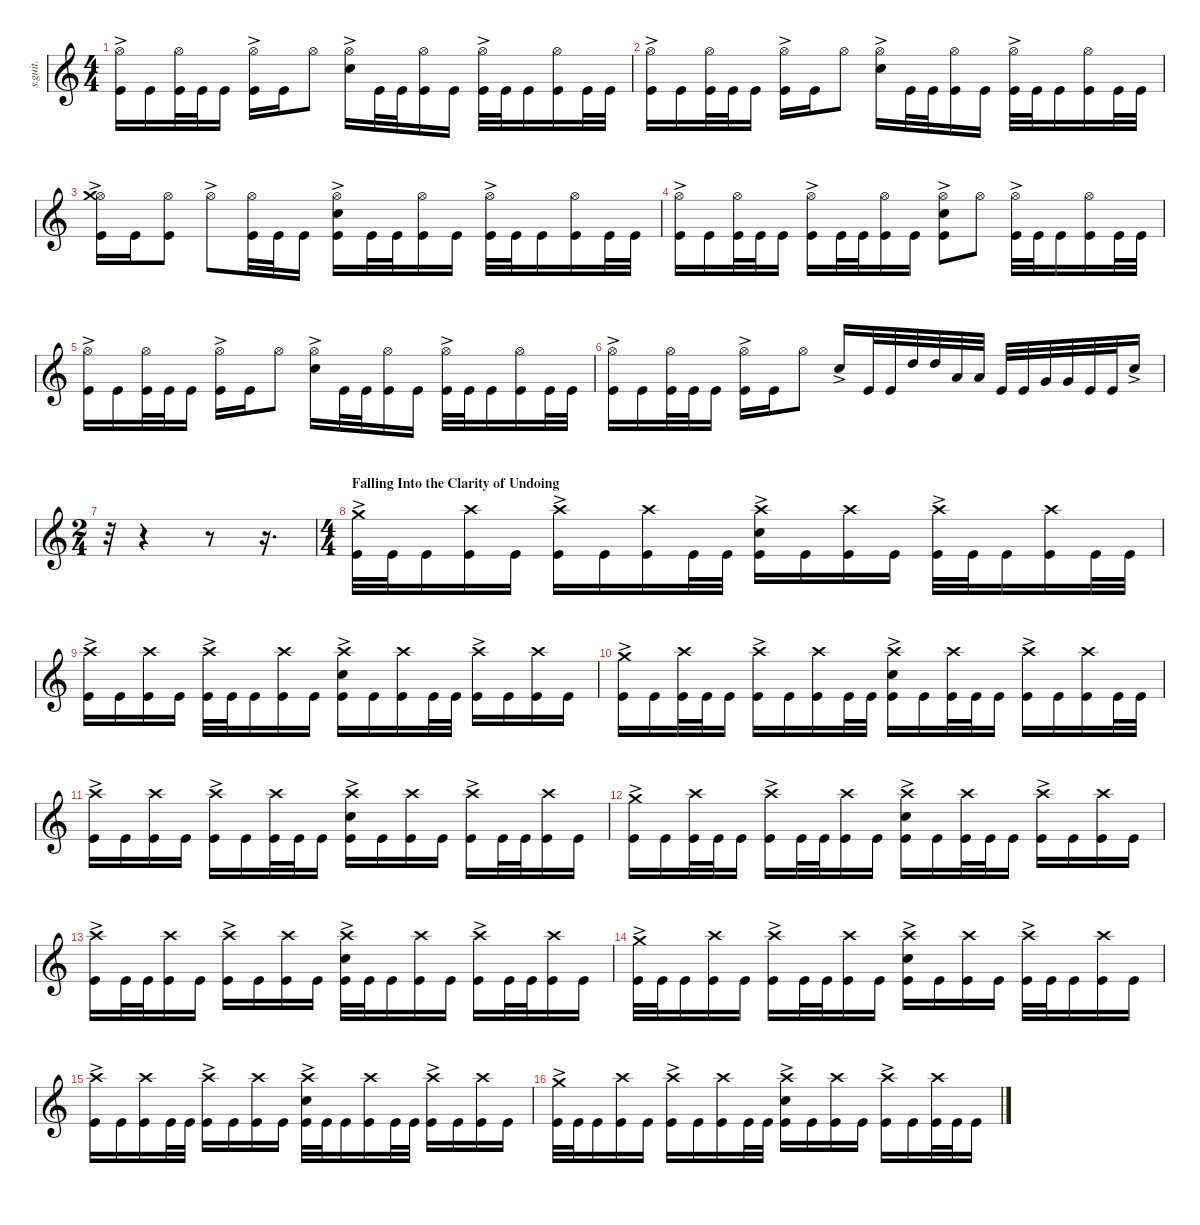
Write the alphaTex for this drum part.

\defaultSystemsLayout 4
\hideDynamics
\bracketExtendMode nobrackets
\track ("Tomas Haake (Drums)" "s.guit.") {instrument percussion}
\staff {score}
\articulation defaults
\ts (4 4)
\tempo (115 hide)
\clef g2
\ks c
("Hi-Hat (open)"{ac} "Kick (hit)").16{lyrics (0 "") lyrics (1 "") lyrics (2 "") lyrics (3 "") lyrics (4 "") dy f} "Kick (hit)".16{lyrics (0 "") lyrics (1 "") lyrics (2 "") lyrics (3 "") lyrics (4 "")} ("Hi-Hat (open)" "Kick (hit)").32{lyrics (0 "") lyrics (1 "") lyrics (2 "") lyrics (3 "") lyrics (4 "") dy p} "Kick (hit)".32{lyrics (0 "") lyrics (1 "") lyrics (2 "") lyrics (3 "") lyrics (4 "") dy mf} "Kick (hit)".16{lyrics (0 "") lyrics (1 "") lyrics (2 "") lyrics (3 "") lyrics (4 "") dy f} ("Hi-Hat (open)"{ac} "Kick (hit)").16{lyrics (0 "") lyrics (1 "") lyrics (2 "") lyrics (3 "") lyrics (4 "")} "Kick (hit)".16{lyrics (0 "") lyrics (1 "") lyrics (2 "") lyrics (3 "") lyrics (4 "")} "Hi-Hat (open)".8{lyrics (0 "") lyrics (1 "") lyrics (2 "") lyrics (3 "") lyrics (4 "") dy p} ("Hi-Hat (open)"{ac} "Snare (hit) 2").16{lyrics (0 "") lyrics (1 "") lyrics (2 "") lyrics (3 "") lyrics (4 "") dy f} "Kick (hit)".32{lyrics (0 "") lyrics (1 "") lyrics (2 "") lyrics (3 "") lyrics (4 "")} "Kick (hit)".32{lyrics (0 "") lyrics (1 "") lyrics (2 "") lyrics (3 "") lyrics (4 "") dy mf} ("Hi-Hat (open)" "Kick (hit)").16{lyrics (0 "") lyrics (1 "") lyrics (2 "") lyrics (3 "") lyrics (4 "") dy p} "Kick (hit)".16{lyrics (0 "") lyrics (1 "") lyrics (2 "") lyrics (3 "") lyrics (4 "") dy f} ("Hi-Hat (open)"{ac} "Kick (hit)").32{lyrics (0 "") lyrics (1 "") lyrics (2 "") lyrics (3 "") lyrics (4 "")} "Kick (hit)".32{lyrics (0 "") lyrics (1 "") lyrics (2 "") lyrics (3 "") lyrics (4 "") dy mf} "Kick (hit)".16{lyrics (0 "") lyrics (1 "") lyrics (2 "") lyrics (3 "") lyrics (4 "") dy f} ("Hi-Hat (open)" "Kick (hit)").16{lyrics (0 "") lyrics (1 "") lyrics (2 "") lyrics (3 "") lyrics (4 "") dy p} "Kick (hit)".32{lyrics (0 "") lyrics (1 "") lyrics (2 "") lyrics (3 "") lyrics (4 "") dy f} "Kick (hit)".32{lyrics (0 "") lyrics (1 "") lyrics (2 "") lyrics (3 "") lyrics (4 "") dy mf} |
("Hi-Hat (open)"{ac} "Kick (hit)").16{lyrics (0 "") lyrics (1 "") lyrics (2 "") lyrics (3 "") lyrics (4 "") dy f} "Kick (hit)".16{lyrics (0 "") lyrics (1 "") lyrics (2 "") lyrics (3 "") lyrics (4 "")} ("Hi-Hat (open)" "Kick (hit)").32{lyrics (0 "") lyrics (1 "") lyrics (2 "") lyrics (3 "") lyrics (4 "") dy p} "Kick (hit)".32{lyrics (0 "") lyrics (1 "") lyrics (2 "") lyrics (3 "") lyrics (4 "") dy mf} "Kick (hit)".16{lyrics (0 "") lyrics (1 "") lyrics (2 "") lyrics (3 "") lyrics (4 "") dy f} ("Hi-Hat (open)"{ac} "Kick (hit)").16{lyrics (0 "") lyrics (1 "") lyrics (2 "") lyrics (3 "") lyrics (4 "")} "Kick (hit)".16{lyrics (0 "") lyrics (1 "") lyrics (2 "") lyrics (3 "") lyrics (4 "")} "Hi-Hat (open)".8{lyrics (0 "") lyrics (1 "") lyrics (2 "") lyrics (3 "") lyrics (4 "") dy p} ("Hi-Hat (open)"{ac} "Snare (hit) 2").16{lyrics (0 "") lyrics (1 "") lyrics (2 "") lyrics (3 "") lyrics (4 "") dy f} "Kick (hit)".32{lyrics (0 "") lyrics (1 "") lyrics (2 "") lyrics (3 "") lyrics (4 "")} "Kick (hit)".32{lyrics (0 "") lyrics (1 "") lyrics (2 "") lyrics (3 "") lyrics (4 "") dy mf} ("Hi-Hat (open)" "Kick (hit)").16{lyrics (0 "") lyrics (1 "") lyrics (2 "") lyrics (3 "") lyrics (4 "") dy p} "Kick (hit)".16{lyrics (0 "") lyrics (1 "") lyrics (2 "") lyrics (3 "") lyrics (4 "") dy f} ("Hi-Hat (open)"{ac} "Kick (hit)").32{lyrics (0 "") lyrics (1 "") lyrics (2 "") lyrics (3 "") lyrics (4 "")} "Kick (hit)".32{lyrics (0 "") lyrics (1 "") lyrics (2 "") lyrics (3 "") lyrics (4 "") dy mf} "Kick (hit)".16{lyrics (0 "") lyrics (1 "") lyrics (2 "") lyrics (3 "") lyrics (4 "") dy f} ("Hi-Hat (open)" "Kick (hit)").16{lyrics (0 "") lyrics (1 "") lyrics (2 "") lyrics (3 "") lyrics (4 "") dy p} "Kick (hit)".32{lyrics (0 "") lyrics (1 "") lyrics (2 "") lyrics (3 "") lyrics (4 "") dy f} "Kick (hit)".32{lyrics (0 "") lyrics (1 "") lyrics (2 "") lyrics (3 "") lyrics (4 "") dy mf} |
("Hi-Hat (open)"{ac} "Crash medium (hit)" "Kick (hit)").16{lyrics (0 "") lyrics (1 "") lyrics (2 "") lyrics (3 "") lyrics (4 "")} "Kick (hit)".16{lyrics (0 "") lyrics (1 "") lyrics (2 "") lyrics (3 "") lyrics (4 "") dy f} ("Hi-Hat (open)" "Kick (hit)").8{lyrics (0 "") lyrics (1 "") lyrics (2 "") lyrics (3 "") lyrics (4 "") dy p} "Hi-Hat (open)"{ac}.8{lyrics (0 "") lyrics (1 "") lyrics (2 "") lyrics (3 "") lyrics (4 "") dy ppp} ("Hi-Hat (open)" "Kick (hit)").32{lyrics (0 "") lyrics (1 "") lyrics (2 "") lyrics (3 "") lyrics (4 "") dy p} "Kick (hit)".32{lyrics (0 "") lyrics (1 "") lyrics (2 "") lyrics (3 "") lyrics (4 "") dy mf} "Kick (hit)".16{lyrics (0 "") lyrics (1 "") lyrics (2 "") lyrics (3 "") lyrics (4 "") dy f} ("Hi-Hat (open)"{ac} "Snare (hit) 2" "Kick (hit)").16{lyrics (0 "") lyrics (1 "") lyrics (2 "") lyrics (3 "") lyrics (4 "")} "Kick (hit)".32{lyrics (0 "") lyrics (1 "") lyrics (2 "") lyrics (3 "") lyrics (4 "")} "Kick (hit)".32{lyrics (0 "") lyrics (1 "") lyrics (2 "") lyrics (3 "") lyrics (4 "") dy mf} ("Hi-Hat (open)" "Kick (hit)").16{lyrics (0 "") lyrics (1 "") lyrics (2 "") lyrics (3 "") lyrics (4 "") dy p} "Kick (hit)".16{lyrics (0 "") lyrics (1 "") lyrics (2 "") lyrics (3 "") lyrics (4 "") dy f} ("Hi-Hat (open)"{ac} "Kick (hit)").32{lyrics (0 "") lyrics (1 "") lyrics (2 "") lyrics (3 "") lyrics (4 "")} "Kick (hit)".32{lyrics (0 "") lyrics (1 "") lyrics (2 "") lyrics (3 "") lyrics (4 "") dy mf} "Kick (hit)".16{lyrics (0 "") lyrics (1 "") lyrics (2 "") lyrics (3 "") lyrics (4 "") dy f} ("Hi-Hat (open)" "Kick (hit)").16{lyrics (0 "") lyrics (1 "") lyrics (2 "") lyrics (3 "") lyrics (4 "") dy p} "Kick (hit)".32{lyrics (0 "") lyrics (1 "") lyrics (2 "") lyrics (3 "") lyrics (4 "") dy f} "Kick (hit)".32{lyrics (0 "") lyrics (1 "") lyrics (2 "") lyrics (3 "") lyrics (4 "") dy mf} |
("Hi-Hat (open)"{ac} "Kick (hit)").16{lyrics (0 "") lyrics (1 "") lyrics (2 "") lyrics (3 "") lyrics (4 "") dy f} "Kick (hit)".16{lyrics (0 "") lyrics (1 "") lyrics (2 "") lyrics (3 "") lyrics (4 "")} ("Hi-Hat (open)" "Kick (hit)").32{lyrics (0 "") lyrics (1 "") lyrics (2 "") lyrics (3 "") lyrics (4 "") dy p} "Kick (hit)".32{lyrics (0 "") lyrics (1 "") lyrics (2 "") lyrics (3 "") lyrics (4 "") dy mf} "Kick (hit)".16{lyrics (0 "") lyrics (1 "") lyrics (2 "") lyrics (3 "") lyrics (4 "") dy f} ("Hi-Hat (open)"{ac} "Kick (hit)").16{lyrics (0 "") lyrics (1 "") lyrics (2 "") lyrics (3 "") lyrics (4 "")} "Kick (hit)".32{lyrics (0 "") lyrics (1 "") lyrics (2 "") lyrics (3 "") lyrics (4 "")} "Kick (hit)".32{lyrics (0 "") lyrics (1 "") lyrics (2 "") lyrics (3 "") lyrics (4 "") dy mf} ("Hi-Hat (open)" "Kick (hit)").16{lyrics (0 "") lyrics (1 "") lyrics (2 "") lyrics (3 "") lyrics (4 "") dy p} "Kick (hit)".16{lyrics (0 "") lyrics (1 "") lyrics (2 "") lyrics (3 "") lyrics (4 "") dy f} ("Hi-Hat (open)"{ac} "Snare (hit) 2" "Kick (hit)").8{lyrics (0 "") lyrics (1 "") lyrics (2 "") lyrics (3 "") lyrics (4 "")} "Hi-Hat (open)".8{lyrics (0 "") lyrics (1 "") lyrics (2 "") lyrics (3 "") lyrics (4 "") dy p} ("Hi-Hat (open)"{ac} "Kick (hit)").32{lyrics (0 "") lyrics (1 "") lyrics (2 "") lyrics (3 "") lyrics (4 "") dy f} "Kick (hit)".32{lyrics (0 "") lyrics (1 "") lyrics (2 "") lyrics (3 "") lyrics (4 "") dy mf} "Kick (hit)".16{lyrics (0 "") lyrics (1 "") lyrics (2 "") lyrics (3 "") lyrics (4 "") dy f} ("Hi-Hat (open)" "Kick (hit)").16{lyrics (0 "") lyrics (1 "") lyrics (2 "") lyrics (3 "") lyrics (4 "") dy p} "Kick (hit)".32{lyrics (0 "") lyrics (1 "") lyrics (2 "") lyrics (3 "") lyrics (4 "") dy mf} "Kick (hit)".32{lyrics (0 "") lyrics (1 "") lyrics (2 "") lyrics (3 "") lyrics (4 "")} |
("Hi-Hat (open)"{ac} "Kick (hit)").16{lyrics (0 "") lyrics (1 "") lyrics (2 "") lyrics (3 "") lyrics (4 "") dy f} "Kick (hit)".16{lyrics (0 "") lyrics (1 "") lyrics (2 "") lyrics (3 "") lyrics (4 "")} ("Hi-Hat (open)" "Kick (hit)").32{lyrics (0 "") lyrics (1 "") lyrics (2 "") lyrics (3 "") lyrics (4 "") dy p} "Kick (hit)".32{lyrics (0 "") lyrics (1 "") lyrics (2 "") lyrics (3 "") lyrics (4 "") dy mf} "Kick (hit)".16{lyrics (0 "") lyrics (1 "") lyrics (2 "") lyrics (3 "") lyrics (4 "") dy f} ("Hi-Hat (open)"{ac} "Kick (hit)").16{lyrics (0 "") lyrics (1 "") lyrics (2 "") lyrics (3 "") lyrics (4 "")} "Kick (hit)".16{lyrics (0 "") lyrics (1 "") lyrics (2 "") lyrics (3 "") lyrics (4 "")} "Hi-Hat (open)".8{lyrics (0 "") lyrics (1 "") lyrics (2 "") lyrics (3 "") lyrics (4 "") dy p} ("Hi-Hat (open)"{ac} "Snare (hit) 2").16{lyrics (0 "") lyrics (1 "") lyrics (2 "") lyrics (3 "") lyrics (4 "") dy f} "Kick (hit)".32{lyrics (0 "") lyrics (1 "") lyrics (2 "") lyrics (3 "") lyrics (4 "")} "Kick (hit)".32{lyrics (0 "") lyrics (1 "") lyrics (2 "") lyrics (3 "") lyrics (4 "") dy mf} ("Hi-Hat (open)" "Kick (hit)").16{lyrics (0 "") lyrics (1 "") lyrics (2 "") lyrics (3 "") lyrics (4 "") dy p} "Kick (hit)".16{lyrics (0 "") lyrics (1 "") lyrics (2 "") lyrics (3 "") lyrics (4 "") dy f} ("Hi-Hat (open)"{ac} "Kick (hit)").32{lyrics (0 "") lyrics (1 "") lyrics (2 "") lyrics (3 "") lyrics (4 "")} "Kick (hit)".32{lyrics (0 "") lyrics (1 "") lyrics (2 "") lyrics (3 "") lyrics (4 "") dy mf} "Kick (hit)".16{lyrics (0 "") lyrics (1 "") lyrics (2 "") lyrics (3 "") lyrics (4 "") dy f} ("Hi-Hat (open)" "Kick (hit)").16{lyrics (0 "") lyrics (1 "") lyrics (2 "") lyrics (3 "") lyrics (4 "") dy p} "Kick (hit)".32{lyrics (0 "") lyrics (1 "") lyrics (2 "") lyrics (3 "") lyrics (4 "") dy f} "Kick (hit)".32{lyrics (0 "") lyrics (1 "") lyrics (2 "") lyrics (3 "") lyrics (4 "") dy mf} |
("Hi-Hat (open)"{ac} "Kick (hit)").16{lyrics (0 "") lyrics (1 "") lyrics (2 "") lyrics (3 "") lyrics (4 "") dy f} "Kick (hit)".16{lyrics (0 "") lyrics (1 "") lyrics (2 "") lyrics (3 "") lyrics (4 "")} ("Hi-Hat (open)" "Kick (hit)").32{lyrics (0 "") lyrics (1 "") lyrics (2 "") lyrics (3 "") lyrics (4 "") dy p} "Kick (hit)".32{lyrics (0 "") lyrics (1 "") lyrics (2 "") lyrics (3 "") lyrics (4 "") dy mf} "Kick (hit)".16{lyrics (0 "") lyrics (1 "") lyrics (2 "") lyrics (3 "") lyrics (4 "") dy f} ("Hi-Hat (open)"{ac} "Kick (hit)").16{lyrics (0 "") lyrics (1 "") lyrics (2 "") lyrics (3 "") lyrics (4 "")} "Kick (hit)".16{lyrics (0 "") lyrics (1 "") lyrics (2 "") lyrics (3 "") lyrics (4 "")} "Hi-Hat (open)".8{lyrics (0 "") lyrics (1 "") lyrics (2 "") lyrics (3 "") lyrics (4 "") dy p} "Snare (hit) 2"{ac}.16{lyrics (0 "") lyrics (1 "") lyrics (2 "") lyrics (3 "") lyrics (4 "") dy pp} "Kick (hit)".32{lyrics (0 "") lyrics (1 "") lyrics (2 "") lyrics (3 "") lyrics (4 "") dy mf} "Kick (hit)".32{lyrics (0 "") lyrics (1 "") lyrics (2 "") lyrics (3 "") lyrics (4 "") dy f} "High Tom (hit)".32{lyrics (0 "") lyrics (1 "") lyrics (2 "") lyrics (3 "") lyrics (4 "") dy mf} "High Tom (hit)".32{lyrics (0 "") lyrics (1 "") lyrics (2 "") lyrics (3 "") lyrics (4 "")} "Low Tom (hit)".32{lyrics (0 "") lyrics (1 "") lyrics (2 "") lyrics (3 "") lyrics (4 "")} "Low Tom (hit)".32{lyrics (0 "") lyrics (1 "") lyrics (2 "") lyrics (3 "") lyrics (4 "") dy mp} "Kick (hit)".32{lyrics (0 "") lyrics (1 "") lyrics (2 "") lyrics (3 "") lyrics (4 "") dy mf} "Kick (hit)".32{lyrics (0 "") lyrics (1 "") lyrics (2 "") lyrics (3 "") lyrics (4 "") dy f} "Very Low Tom (hit)".32{lyrics (0 "") lyrics (1 "") lyrics (2 "") lyrics (3 "") lyrics (4 "") dy mf} "Very Low Tom (hit)".32{lyrics (0 "") lyrics (1 "") lyrics (2 "") lyrics (3 "") lyrics (4 "") dy mp} "Kick (hit)".32{lyrics (0 "") lyrics (1 "") lyrics (2 "") lyrics (3 "") lyrics (4 "") dy mf} "Kick (hit)".32{lyrics (0 "") lyrics (1 "") lyrics (2 "") lyrics (3 "") lyrics (4 "") dy f} "Snare (hit) 2"{ac}.16{lyrics (0 "") lyrics (1 "") lyrics (2 "") lyrics (3 "") lyrics (4 "") dy pp} |
\ts (2 4)
\beaming (8 2 2 2 2)
r.32 r.4 r.8 r.16{d} |
\ts (4 4)
\beaming (8 2 2 2 2)
\section ("" "Falling Into the Clarity of Undoing")
("Crash medium (hit)"{ac} "Kick (hit)").32{lyrics (0 "") lyrics (1 "") lyrics (2 "") lyrics (3 "") lyrics (4 "") dy f} "Kick (hit)".32{lyrics (0 "") lyrics (1 "") lyrics (2 "") lyrics (3 "") lyrics (4 "") dy mf} "Kick (hit)".16{lyrics (0 "") lyrics (1 "") lyrics (2 "") lyrics (3 "") lyrics (4 "") dy f} ("Crash high (hit)" "Kick (hit)").16{lyrics (0 "") lyrics (1 "") lyrics (2 "") lyrics (3 "") lyrics (4 "") dy p} "Kick (hit)".16{lyrics (0 "") lyrics (1 "") lyrics (2 "") lyrics (3 "") lyrics (4 "") dy f} ("Crash high (hit)"{ac} "Kick (hit)").16{lyrics (0 "") lyrics (1 "") lyrics (2 "") lyrics (3 "") lyrics (4 "")} "Kick (hit)".16{lyrics (0 "") lyrics (1 "") lyrics (2 "") lyrics (3 "") lyrics (4 "")} ("Crash high (hit)" "Kick (hit)").16{lyrics (0 "") lyrics (1 "") lyrics (2 "") lyrics (3 "") lyrics (4 "") dy p} "Kick (hit)".32{lyrics (0 "") lyrics (1 "") lyrics (2 "") lyrics (3 "") lyrics (4 "") dy f} "Kick (hit)".32{lyrics (0 "") lyrics (1 "") lyrics (2 "") lyrics (3 "") lyrics (4 "") dy mf} ("Crash high (hit)"{ac} "Snare (hit) 2" "Kick (hit)").16{lyrics (0 "") lyrics (1 "") lyrics (2 "") lyrics (3 "") lyrics (4 "") dy f} "Kick (hit)".16{lyrics (0 "") lyrics (1 "") lyrics (2 "") lyrics (3 "") lyrics (4 "")} ("Crash high (hit)" "Kick (hit)").16{lyrics (0 "") lyrics (1 "") lyrics (2 "") lyrics (3 "") lyrics (4 "") dy p} "Kick (hit)".16{lyrics (0 "") lyrics (1 "") lyrics (2 "") lyrics (3 "") lyrics (4 "") dy f} ("Crash high (hit)"{ac} "Kick (hit)").32{lyrics (0 "") lyrics (1 "") lyrics (2 "") lyrics (3 "") lyrics (4 "")} "Kick (hit)".32{lyrics (0 "") lyrics (1 "") lyrics (2 "") lyrics (3 "") lyrics (4 "") dy mf} "Kick (hit)".16{lyrics (0 "") lyrics (1 "") lyrics (2 "") lyrics (3 "") lyrics (4 "") dy f} ("Crash high (hit)" "Kick (hit)").16{lyrics (0 "") lyrics (1 "") lyrics (2 "") lyrics (3 "") lyrics (4 "") dy p} "Kick (hit)".32{lyrics (0 "") lyrics (1 "") lyrics (2 "") lyrics (3 "") lyrics (4 "") dy f} "Kick (hit)".32{lyrics (0 "") lyrics (1 "") lyrics (2 "") lyrics (3 "") lyrics (4 "") dy mf} |
("Crash high (hit)"{ac} "Kick (hit)").16{lyrics (0 "") lyrics (1 "") lyrics (2 "") lyrics (3 "") lyrics (4 "") dy f} "Kick (hit)".16{lyrics (0 "") lyrics (1 "") lyrics (2 "") lyrics (3 "") lyrics (4 "")} ("Crash high (hit)" "Kick (hit)").16{lyrics (0 "") lyrics (1 "") lyrics (2 "") lyrics (3 "") lyrics (4 "") dy p} "Kick (hit)".16{lyrics (0 "") lyrics (1 "") lyrics (2 "") lyrics (3 "") lyrics (4 "") dy f} ("Crash high (hit)"{ac} "Kick (hit)").32{lyrics (0 "") lyrics (1 "") lyrics (2 "") lyrics (3 "") lyrics (4 "")} "Kick (hit)".32{lyrics (0 "") lyrics (1 "") lyrics (2 "") lyrics (3 "") lyrics (4 "") dy mf} "Kick (hit)".16{lyrics (0 "") lyrics (1 "") lyrics (2 "") lyrics (3 "") lyrics (4 "") dy f} ("Crash high (hit)" "Kick (hit)").16{lyrics (0 "") lyrics (1 "") lyrics (2 "") lyrics (3 "") lyrics (4 "") dy p} "Kick (hit)".16{lyrics (0 "") lyrics (1 "") lyrics (2 "") lyrics (3 "") lyrics (4 "") dy f} ("Crash high (hit)"{ac} "Snare (hit) 2" "Kick (hit)").16{lyrics (0 "") lyrics (1 "") lyrics (2 "") lyrics (3 "") lyrics (4 "")} "Kick (hit)".16{lyrics (0 "") lyrics (1 "") lyrics (2 "") lyrics (3 "") lyrics (4 "")} ("Crash high (hit)" "Kick (hit)").16{lyrics (0 "") lyrics (1 "") lyrics (2 "") lyrics (3 "") lyrics (4 "") dy p} "Kick (hit)".32{lyrics (0 "") lyrics (1 "") lyrics (2 "") lyrics (3 "") lyrics (4 "") dy f} "Kick (hit)".32{lyrics (0 "") lyrics (1 "") lyrics (2 "") lyrics (3 "") lyrics (4 "") dy mf} ("Crash high (hit)"{ac} "Kick (hit)").16{lyrics (0 "") lyrics (1 "") lyrics (2 "") lyrics (3 "") lyrics (4 "") dy f} "Kick (hit)".16{lyrics (0 "") lyrics (1 "") lyrics (2 "") lyrics (3 "") lyrics (4 "")} ("Crash high (hit)" "Kick (hit)").16{lyrics (0 "") lyrics (1 "") lyrics (2 "") lyrics (3 "") lyrics (4 "") dy p} "Kick (hit)".16{lyrics (0 "") lyrics (1 "") lyrics (2 "") lyrics (3 "") lyrics (4 "") dy f} |
("Crash medium (hit)"{ac} "Kick (hit)").16{lyrics (0 "") lyrics (1 "") lyrics (2 "") lyrics (3 "") lyrics (4 "")} "Kick (hit)".16{lyrics (0 "") lyrics (1 "") lyrics (2 "") lyrics (3 "") lyrics (4 "")} ("Crash high (hit)" "Kick (hit)").32{lyrics (0 "") lyrics (1 "") lyrics (2 "") lyrics (3 "") lyrics (4 "") dy p} "Kick (hit)".32{lyrics (0 "") lyrics (1 "") lyrics (2 "") lyrics (3 "") lyrics (4 "") dy mf} "Kick (hit)".16{lyrics (0 "") lyrics (1 "") lyrics (2 "") lyrics (3 "") lyrics (4 "") dy f} ("Crash high (hit)"{ac} "Kick (hit)").16{lyrics (0 "") lyrics (1 "") lyrics (2 "") lyrics (3 "") lyrics (4 "")} "Kick (hit)".16{lyrics (0 "") lyrics (1 "") lyrics (2 "") lyrics (3 "") lyrics (4 "")} ("Crash high (hit)" "Kick (hit)").16{lyrics (0 "") lyrics (1 "") lyrics (2 "") lyrics (3 "") lyrics (4 "") dy p} "Kick (hit)".32{lyrics (0 "") lyrics (1 "") lyrics (2 "") lyrics (3 "") lyrics (4 "") dy f} "Kick (hit)".32{lyrics (0 "") lyrics (1 "") lyrics (2 "") lyrics (3 "") lyrics (4 "") dy mf} ("Crash high (hit)"{ac} "Snare (hit) 2" "Kick (hit)").16{lyrics (0 "") lyrics (1 "") lyrics (2 "") lyrics (3 "") lyrics (4 "") dy f} "Kick (hit)".16{lyrics (0 "") lyrics (1 "") lyrics (2 "") lyrics (3 "") lyrics (4 "")} ("Crash high (hit)" "Kick (hit)").32{lyrics (0 "") lyrics (1 "") lyrics (2 "") lyrics (3 "") lyrics (4 "") dy p} "Kick (hit)".32{lyrics (0 "") lyrics (1 "") lyrics (2 "") lyrics (3 "") lyrics (4 "") dy mf} "Kick (hit)".16{lyrics (0 "") lyrics (1 "") lyrics (2 "") lyrics (3 "") lyrics (4 "") dy f} ("Crash high (hit)"{ac} "Kick (hit)").16{lyrics (0 "") lyrics (1 "") lyrics (2 "") lyrics (3 "") lyrics (4 "")} "Kick (hit)".16{lyrics (0 "") lyrics (1 "") lyrics (2 "") lyrics (3 "") lyrics (4 "")} ("Crash high (hit)" "Kick (hit)").16{lyrics (0 "") lyrics (1 "") lyrics (2 "") lyrics (3 "") lyrics (4 "") dy p} "Kick (hit)".32{lyrics (0 "") lyrics (1 "") lyrics (2 "") lyrics (3 "") lyrics (4 "") dy f} "Kick (hit)".32{lyrics (0 "") lyrics (1 "") lyrics (2 "") lyrics (3 "") lyrics (4 "") dy mf} |
("Crash high (hit)"{ac} "Kick (hit)").16{lyrics (0 "") lyrics (1 "") lyrics (2 "") lyrics (3 "") lyrics (4 "") dy f} "Kick (hit)".16{lyrics (0 "") lyrics (1 "") lyrics (2 "") lyrics (3 "") lyrics (4 "")} ("Crash high (hit)" "Kick (hit)").16{lyrics (0 "") lyrics (1 "") lyrics (2 "") lyrics (3 "") lyrics (4 "") dy p} "Kick (hit)".16{lyrics (0 "") lyrics (1 "") lyrics (2 "") lyrics (3 "") lyrics (4 "") dy f} ("Crash high (hit)"{ac} "Kick (hit)").16{lyrics (0 "") lyrics (1 "") lyrics (2 "") lyrics (3 "") lyrics (4 "")} "Kick (hit)".16{lyrics (0 "") lyrics (1 "") lyrics (2 "") lyrics (3 "") lyrics (4 "")} ("Crash high (hit)" "Kick (hit)").32{lyrics (0 "") lyrics (1 "") lyrics (2 "") lyrics (3 "") lyrics (4 "") dy p} "Kick (hit)".32{lyrics (0 "") lyrics (1 "") lyrics (2 "") lyrics (3 "") lyrics (4 "") dy mf} "Kick (hit)".16{lyrics (0 "") lyrics (1 "") lyrics (2 "") lyrics (3 "") lyrics (4 "") dy f} ("Crash high (hit)"{ac} "Snare (hit) 2" "Kick (hit)").16{lyrics (0 "") lyrics (1 "") lyrics (2 "") lyrics (3 "") lyrics (4 "")} "Kick (hit)".16{lyrics (0 "") lyrics (1 "") lyrics (2 "") lyrics (3 "") lyrics (4 "")} ("Crash high (hit)" "Kick (hit)").16{lyrics (0 "") lyrics (1 "") lyrics (2 "") lyrics (3 "") lyrics (4 "") dy p} "Kick (hit)".16{lyrics (0 "") lyrics (1 "") lyrics (2 "") lyrics (3 "") lyrics (4 "") dy f} ("Crash high (hit)"{ac} "Kick (hit)").16{lyrics (0 "") lyrics (1 "") lyrics (2 "") lyrics (3 "") lyrics (4 "")} "Kick (hit)".32{lyrics (0 "") lyrics (1 "") lyrics (2 "") lyrics (3 "") lyrics (4 "")} "Kick (hit)".32{lyrics (0 "") lyrics (1 "") lyrics (2 "") lyrics (3 "") lyrics (4 "") dy mf} ("Crash high (hit)" "Kick (hit)").16{lyrics (0 "") lyrics (1 "") lyrics (2 "") lyrics (3 "") lyrics (4 "") dy p} "Kick (hit)".16{lyrics (0 "") lyrics (1 "") lyrics (2 "") lyrics (3 "") lyrics (4 "") dy f} |
("Crash medium (hit)"{ac} "Kick (hit)").16{lyrics (0 "") lyrics (1 "") lyrics (2 "") lyrics (3 "") lyrics (4 "")} "Kick (hit)".16{lyrics (0 "") lyrics (1 "") lyrics (2 "") lyrics (3 "") lyrics (4 "")} ("Crash high (hit)" "Kick (hit)").32{lyrics (0 "") lyrics (1 "") lyrics (2 "") lyrics (3 "") lyrics (4 "") dy p} "Kick (hit)".32{lyrics (0 "") lyrics (1 "") lyrics (2 "") lyrics (3 "") lyrics (4 "") dy mf} "Kick (hit)".16{lyrics (0 "") lyrics (1 "") lyrics (2 "") lyrics (3 "") lyrics (4 "") dy f} ("Crash high (hit)"{ac} "Kick (hit)").16{lyrics (0 "") lyrics (1 "") lyrics (2 "") lyrics (3 "") lyrics (4 "")} "Kick (hit)".32{lyrics (0 "") lyrics (1 "") lyrics (2 "") lyrics (3 "") lyrics (4 "")} "Kick (hit)".32{lyrics (0 "") lyrics (1 "") lyrics (2 "") lyrics (3 "") lyrics (4 "") dy mf} ("Crash high (hit)" "Kick (hit)").16{lyrics (0 "") lyrics (1 "") lyrics (2 "") lyrics (3 "") lyrics (4 "") dy p} "Kick (hit)".16{lyrics (0 "") lyrics (1 "") lyrics (2 "") lyrics (3 "") lyrics (4 "") dy f} ("Crash high (hit)"{ac} "Snare (hit) 2" "Kick (hit)").16{lyrics (0 "") lyrics (1 "") lyrics (2 "") lyrics (3 "") lyrics (4 "")} "Kick (hit)".16{lyrics (0 "") lyrics (1 "") lyrics (2 "") lyrics (3 "") lyrics (4 "")} ("Crash high (hit)" "Kick (hit)").32{lyrics (0 "") lyrics (1 "") lyrics (2 "") lyrics (3 "") lyrics (4 "") dy p} "Kick (hit)".32{lyrics (0 "") lyrics (1 "") lyrics (2 "") lyrics (3 "") lyrics (4 "") dy mf} "Kick (hit)".16{lyrics (0 "") lyrics (1 "") lyrics (2 "") lyrics (3 "") lyrics (4 "") dy f} ("Crash high (hit)"{ac} "Kick (hit)").16{lyrics (0 "") lyrics (1 "") lyrics (2 "") lyrics (3 "") lyrics (4 "")} "Kick (hit)".16{lyrics (0 "") lyrics (1 "") lyrics (2 "") lyrics (3 "") lyrics (4 "")} ("Crash high (hit)" "Kick (hit)").16{lyrics (0 "") lyrics (1 "") lyrics (2 "") lyrics (3 "") lyrics (4 "") dy p} "Kick (hit)".16{lyrics (0 "") lyrics (1 "") lyrics (2 "") lyrics (3 "") lyrics (4 "") dy f} |
("Crash high (hit)"{ac} "Kick (hit)").16{lyrics (0 "") lyrics (1 "") lyrics (2 "") lyrics (3 "") lyrics (4 "")} "Kick (hit)".32{lyrics (0 "") lyrics (1 "") lyrics (2 "") lyrics (3 "") lyrics (4 "")} "Kick (hit)".32{lyrics (0 "") lyrics (1 "") lyrics (2 "") lyrics (3 "") lyrics (4 "") dy mf} ("Crash high (hit)" "Kick (hit)").16{lyrics (0 "") lyrics (1 "") lyrics (2 "") lyrics (3 "") lyrics (4 "") dy p} "Kick (hit)".16{lyrics (0 "") lyrics (1 "") lyrics (2 "") lyrics (3 "") lyrics (4 "") dy mf} ("Crash high (hit)"{ac} "Kick (hit)").16{lyrics (0 "") lyrics (1 "") lyrics (2 "") lyrics (3 "") lyrics (4 "") dy f} "Kick (hit)".16{lyrics (0 "") lyrics (1 "") lyrics (2 "") lyrics (3 "") lyrics (4 "")} ("Crash high (hit)" "Kick (hit)").16{lyrics (0 "") lyrics (1 "") lyrics (2 "") lyrics (3 "") lyrics (4 "") dy p} "Kick (hit)".16{lyrics (0 "") lyrics (1 "") lyrics (2 "") lyrics (3 "") lyrics (4 "") dy f} ("Crash high (hit)"{ac} "Snare (hit) 2" "Kick (hit)").32{lyrics (0 "") lyrics (1 "") lyrics (2 "") lyrics (3 "") lyrics (4 "")} "Kick (hit)".32{lyrics (0 "") lyrics (1 "") lyrics (2 "") lyrics (3 "") lyrics (4 "") dy mf} "Kick (hit)".16{lyrics (0 "") lyrics (1 "") lyrics (2 "") lyrics (3 "") lyrics (4 "") dy f} ("Crash high (hit)" "Kick (hit)").16{lyrics (0 "") lyrics (1 "") lyrics (2 "") lyrics (3 "") lyrics (4 "") dy p} "Kick (hit)".16{lyrics (0 "") lyrics (1 "") lyrics (2 "") lyrics (3 "") lyrics (4 "") dy f} ("Crash high (hit)"{ac} "Kick (hit)").16{lyrics (0 "") lyrics (1 "") lyrics (2 "") lyrics (3 "") lyrics (4 "") dy mf} "Kick (hit)".32{lyrics (0 "") lyrics (1 "") lyrics (2 "") lyrics (3 "") lyrics (4 "") dy f} "Kick (hit)".32{lyrics (0 "") lyrics (1 "") lyrics (2 "") lyrics (3 "") lyrics (4 "")} ("Crash high (hit)" "Kick (hit)").16{lyrics (0 "") lyrics (1 "") lyrics (2 "") lyrics (3 "") lyrics (4 "") dy p} "Kick (hit)".16{lyrics (0 "") lyrics (1 "") lyrics (2 "") lyrics (3 "") lyrics (4 "") dy f} |
("Crash medium (hit)"{ac} "Kick (hit)").32{lyrics (0 "") lyrics (1 "") lyrics (2 "") lyrics (3 "") lyrics (4 "")} "Kick (hit)".32{lyrics (0 "") lyrics (1 "") lyrics (2 "") lyrics (3 "") lyrics (4 "") dy mf} "Kick (hit)".16{lyrics (0 "") lyrics (1 "") lyrics (2 "") lyrics (3 "") lyrics (4 "") dy f} ("Crash high (hit)" "Kick (hit)").16{lyrics (0 "") lyrics (1 "") lyrics (2 "") lyrics (3 "") lyrics (4 "") dy p} "Kick (hit)".16{lyrics (0 "") lyrics (1 "") lyrics (2 "") lyrics (3 "") lyrics (4 "") dy f} ("Crash high (hit)"{ac} "Kick (hit)").16{lyrics (0 "") lyrics (1 "") lyrics (2 "") lyrics (3 "") lyrics (4 "")} "Kick (hit)".32{lyrics (0 "") lyrics (1 "") lyrics (2 "") lyrics (3 "") lyrics (4 "") dy mf} "Kick (hit)".32{lyrics (0 "") lyrics (1 "") lyrics (2 "") lyrics (3 "") lyrics (4 "") dy f} ("Crash high (hit)" "Kick (hit)").16{lyrics (0 "") lyrics (1 "") lyrics (2 "") lyrics (3 "") lyrics (4 "") dy p} "Kick (hit)".16{lyrics (0 "") lyrics (1 "") lyrics (2 "") lyrics (3 "") lyrics (4 "") dy f} ("Crash high (hit)"{ac} "Snare (hit) 2" "Kick (hit)").16{lyrics (0 "") lyrics (1 "") lyrics (2 "") lyrics (3 "") lyrics (4 "")} "Kick (hit)".16{lyrics (0 "") lyrics (1 "") lyrics (2 "") lyrics (3 "") lyrics (4 "")} ("Crash high (hit)" "Kick (hit)").16{lyrics (0 "") lyrics (1 "") lyrics (2 "") lyrics (3 "") lyrics (4 "") dy p} "Kick (hit)".16{lyrics (0 "") lyrics (1 "") lyrics (2 "") lyrics (3 "") lyrics (4 "") dy f} ("Crash high (hit)"{ac} "Kick (hit)").32{lyrics (0 "") lyrics (1 "") lyrics (2 "") lyrics (3 "") lyrics (4 "")} "Kick (hit)".32{lyrics (0 "") lyrics (1 "") lyrics (2 "") lyrics (3 "") lyrics (4 "") dy mf} "Kick (hit)".16{lyrics (0 "") lyrics (1 "") lyrics (2 "") lyrics (3 "") lyrics (4 "") dy f} ("Crash high (hit)" "Kick (hit)").16{lyrics (0 "") lyrics (1 "") lyrics (2 "") lyrics (3 "") lyrics (4 "") dy p} "Kick (hit)".16{lyrics (0 "") lyrics (1 "") lyrics (2 "") lyrics (3 "") lyrics (4 "") dy f} |
("Crash high (hit)"{ac} "Kick (hit)").16{lyrics (0 "") lyrics (1 "") lyrics (2 "") lyrics (3 "") lyrics (4 "")} "Kick (hit)".16{lyrics (0 "") lyrics (1 "") lyrics (2 "") lyrics (3 "") lyrics (4 "")} ("Crash high (hit)" "Kick (hit)").16{lyrics (0 "") lyrics (1 "") lyrics (2 "") lyrics (3 "") lyrics (4 "") dy p} "Kick (hit)".32{lyrics (0 "") lyrics (1 "") lyrics (2 "") lyrics (3 "") lyrics (4 "") dy f} "Kick (hit)".32{lyrics (0 "") lyrics (1 "") lyrics (2 "") lyrics (3 "") lyrics (4 "") dy mf} ("Crash high (hit)"{ac} "Kick (hit)").16{lyrics (0 "") lyrics (1 "") lyrics (2 "") lyrics (3 "") lyrics (4 "") dy f} "Kick (hit)".16{lyrics (0 "") lyrics (1 "") lyrics (2 "") lyrics (3 "") lyrics (4 "")} ("Crash high (hit)" "Kick (hit)").16{lyrics (0 "") lyrics (1 "") lyrics (2 "") lyrics (3 "") lyrics (4 "") dy p} "Kick (hit)".16{lyrics (0 "") lyrics (1 "") lyrics (2 "") lyrics (3 "") lyrics (4 "") dy f} ("Crash high (hit)"{ac} "Snare (hit) 2" "Kick (hit)").32{lyrics (0 "") lyrics (1 "") lyrics (2 "") lyrics (3 "") lyrics (4 "")} "Kick (hit)".32{lyrics (0 "") lyrics (1 "") lyrics (2 "") lyrics (3 "") lyrics (4 "") dy mf} "Kick (hit)".16{lyrics (0 "") lyrics (1 "") lyrics (2 "") lyrics (3 "") lyrics (4 "") dy f} ("Crash high (hit)" "Kick (hit)").16{lyrics (0 "") lyrics (1 "") lyrics (2 "") lyrics (3 "") lyrics (4 "") dy p} "Kick (hit)".32{lyrics (0 "") lyrics (1 "") lyrics (2 "") lyrics (3 "") lyrics (4 "") dy f} "Kick (hit)".32{lyrics (0 "") lyrics (1 "") lyrics (2 "") lyrics (3 "") lyrics (4 "") dy mf} ("Crash high (hit)"{ac} "Kick (hit)").16{lyrics (0 "") lyrics (1 "") lyrics (2 "") lyrics (3 "") lyrics (4 "") dy f} "Kick (hit)".16{lyrics (0 "") lyrics (1 "") lyrics (2 "") lyrics (3 "") lyrics (4 "")} ("Crash high (hit)" "Kick (hit)").16{lyrics (0 "") lyrics (1 "") lyrics (2 "") lyrics (3 "") lyrics (4 "") dy p} "Kick (hit)".16{lyrics (0 "") lyrics (1 "") lyrics (2 "") lyrics (3 "") lyrics (4 "") dy f} |
("Crash medium (hit)"{ac} "Kick (hit)").32{lyrics (0 "") lyrics (1 "") lyrics (2 "") lyrics (3 "") lyrics (4 "")} "Kick (hit)".32{lyrics (0 "") lyrics (1 "") lyrics (2 "") lyrics (3 "") lyrics (4 "") dy mf} "Kick (hit)".16{lyrics (0 "") lyrics (1 "") lyrics (2 "") lyrics (3 "") lyrics (4 "") dy f} ("Crash high (hit)" "Kick (hit)").16{lyrics (0 "") lyrics (1 "") lyrics (2 "") lyrics (3 "") lyrics (4 "") dy p} "Kick (hit)".16{lyrics (0 "") lyrics (1 "") lyrics (2 "") lyrics (3 "") lyrics (4 "") dy f} ("Crash high (hit)"{ac} "Kick (hit)").16{lyrics (0 "") lyrics (1 "") lyrics (2 "") lyrics (3 "") lyrics (4 "")} "Kick (hit)".16{lyrics (0 "") lyrics (1 "") lyrics (2 "") lyrics (3 "") lyrics (4 "")} ("Crash high (hit)" "Kick (hit)").16{lyrics (0 "") lyrics (1 "") lyrics (2 "") lyrics (3 "") lyrics (4 "") dy p} "Kick (hit)".32{lyrics (0 "") lyrics (1 "") lyrics (2 "") lyrics (3 "") lyrics (4 "") dy f} "Kick (hit)".32{lyrics (0 "") lyrics (1 "") lyrics (2 "") lyrics (3 "") lyrics (4 "") dy mf} ("Crash high (hit)"{ac} "Snare (hit) 2" "Kick (hit)").16{lyrics (0 "") lyrics (1 "") lyrics (2 "") lyrics (3 "") lyrics (4 "") dy f} "Kick (hit)".16{lyrics (0 "") lyrics (1 "") lyrics (2 "") lyrics (3 "") lyrics (4 "")} ("Crash high (hit)" "Kick (hit)").16{lyrics (0 "") lyrics (1 "") lyrics (2 "") lyrics (3 "") lyrics (4 "") dy p} "Kick (hit)".16{lyrics (0 "") lyrics (1 "") lyrics (2 "") lyrics (3 "") lyrics (4 "") dy f} ("Crash high (hit)"{ac} "Kick (hit)").16{lyrics (0 "") lyrics (1 "") lyrics (2 "") lyrics (3 "") lyrics (4 "")} "Kick (hit)".16{lyrics (0 "") lyrics (1 "") lyrics (2 "") lyrics (3 "") lyrics (4 "")} ("Crash high (hit)" "Kick (hit)").32{lyrics (0 "") lyrics (1 "") lyrics (2 "") lyrics (3 "") lyrics (4 "") dy p} "Kick (hit)".32{lyrics (0 "") lyrics (1 "") lyrics (2 "") lyrics (3 "") lyrics (4 "") dy mf} "Kick (hit)".16{lyrics (0 "") lyrics (1 "") lyrics (2 "") lyrics (3 "") lyrics (4 "") dy f}
